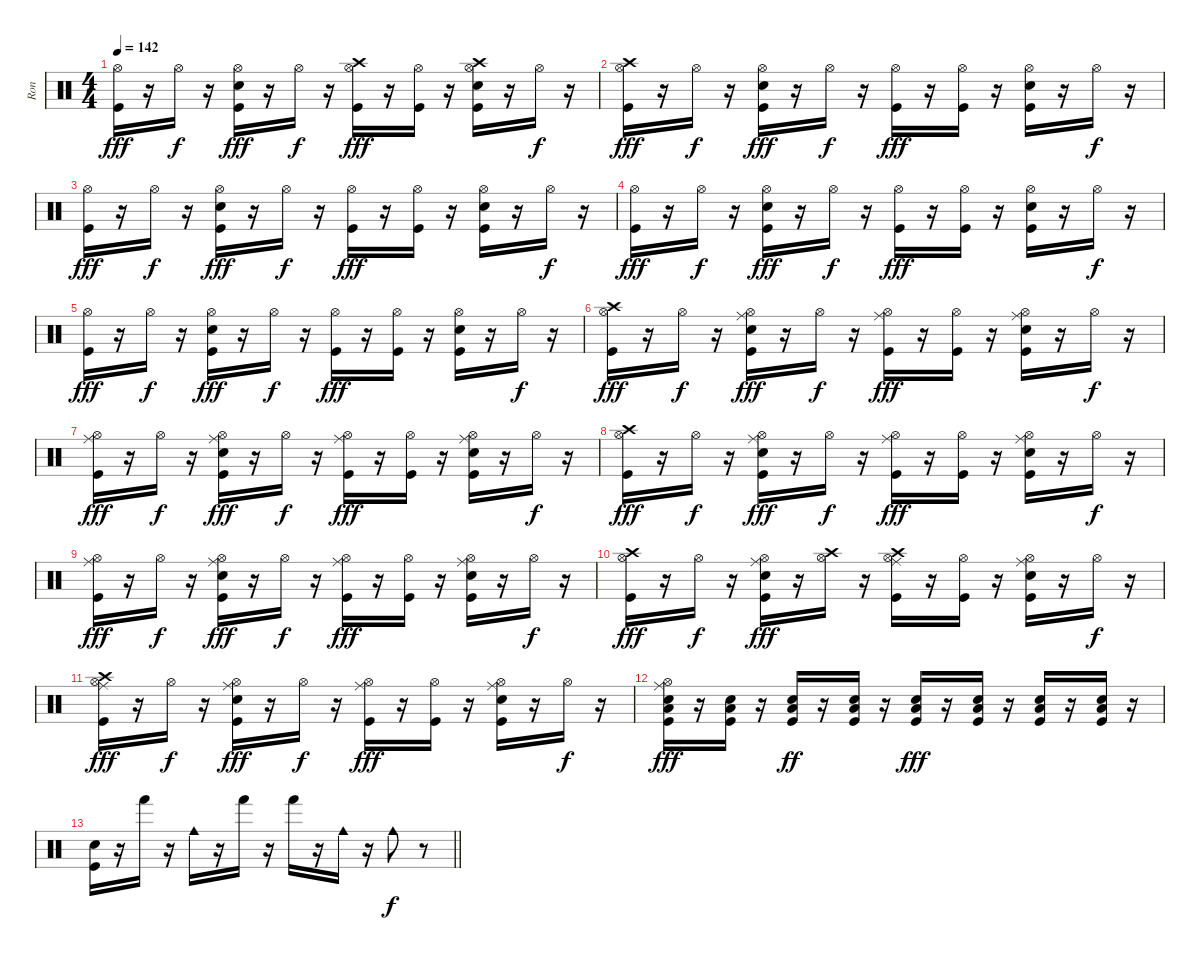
\track ("Ron" "Ron") {instrument percussion}
\staff {score}
\articulation defaults
\ts (4 4)
\tempo 142
\clef neutral
\ks c
("Hi-Hat (open)" "Kick (hit)").16{dy fff} r.16 "Hi-Hat (open)".16{dy f} r.16 ("Snare (hit) 2" "Kick (hit)" "Hi-Hat (open)").16{dy fff} r.16 "Hi-Hat (open)".16{dy f} r.16 ("Kick (hit)" "Hi-Hat (open)" "Crash high (hit)").16{dy fff} r.16 ("Kick (hit)" "Hi-Hat (open)").16 r.16 ("Kick (hit)" "Snare (hit) 2" "Hi-Hat (open)" "Crash high (hit)").16 r.16 "Hi-Hat (open)".16{dy f} r.16 |
("Hi-Hat (open)" "Kick (hit)" "Crash high (hit)").16{dy fff} r.16 "Hi-Hat (open)".16{dy f} r.16 ("Snare (hit) 2" "Kick (hit)" "Hi-Hat (open)").16{dy fff} r.16 "Hi-Hat (open)".16{dy f} r.16 ("Kick (hit)" "Hi-Hat (open)").16{dy fff} r.16 ("Kick (hit)" "Hi-Hat (open)").16 r.16 ("Kick (hit)" "Snare (hit) 2" "Hi-Hat (open)").16 r.16 "Hi-Hat (open)".16{dy f} r.16 |
("Hi-Hat (open)" "Kick (hit)").16{dy fff} r.16 "Hi-Hat (open)".16{dy f} r.16 ("Snare (hit) 2" "Kick (hit)" "Hi-Hat (open)").16{dy fff} r.16 "Hi-Hat (open)".16{dy f} r.16 ("Kick (hit)" "Hi-Hat (open)").16{dy fff} r.16 ("Kick (hit)" "Hi-Hat (open)").16 r.16 ("Kick (hit)" "Snare (hit) 2" "Hi-Hat (open)").16 r.16 "Hi-Hat (open)".16{dy f} r.16 |
("Hi-Hat (open)" "Kick (hit)").16{dy fff} r.16 "Hi-Hat (open)".16{dy f} r.16 ("Snare (hit) 2" "Kick (hit)" "Hi-Hat (open)").16{dy fff} r.16 "Hi-Hat (open)".16{dy f} r.16 ("Kick (hit)" "Hi-Hat (open)").16{dy fff} r.16 ("Kick (hit)" "Hi-Hat (open)").16 r.16 ("Kick (hit)" "Snare (hit) 2" "Hi-Hat (open)").16 r.16 "Hi-Hat (open)".16{dy f} r.16 |
("Hi-Hat (open)" "Kick (hit)").16{dy fff} r.16 "Hi-Hat (open)".16{dy f} r.16 ("Snare (hit) 2" "Kick (hit)" "Hi-Hat (open)").16{dy fff} r.16 "Hi-Hat (open)".16{dy f} r.16 ("Kick (hit)" "Hi-Hat (open)").16{dy fff} r.16 ("Kick (hit)" "Hi-Hat (open)").16 r.16 ("Kick (hit)" "Snare (hit) 2" "Hi-Hat (open)").16 r.16 "Hi-Hat (open)".16{dy f} r.16 |
("Hi-Hat (open)" "Kick (hit)" "Crash high (hit)").16{dy fff} r.16 "Hi-Hat (open)".16{dy f} r.16 ("Snare (hit) 2" "Kick (hit)" "Hi-Hat (open)" "Ride (middle)").16{dy fff} r.16 "Hi-Hat (open)".16{dy f} r.16 ("Kick (hit)" "Hi-Hat (open)" "Ride (middle)").16{dy fff} r.16 ("Kick (hit)" "Hi-Hat (open)").16 r.16 ("Kick (hit)" "Snare (hit) 2" "Hi-Hat (open)" "Ride (middle)").16 r.16 "Hi-Hat (open)".16{dy f} r.16 |
("Hi-Hat (open)" "Kick (hit)" "Ride (middle)").16{dy fff} r.16 "Hi-Hat (open)".16{dy f} r.16 ("Snare (hit) 2" "Kick (hit)" "Hi-Hat (open)" "Ride (middle)").16{dy fff} r.16 "Hi-Hat (open)".16{dy f} r.16 ("Kick (hit)" "Hi-Hat (open)" "Ride (middle)").16{dy fff} r.16 ("Kick (hit)" "Hi-Hat (open)").16 r.16 ("Kick (hit)" "Snare (hit) 2" "Hi-Hat (open)" "Ride (middle)").16 r.16 "Hi-Hat (open)".16{dy f} r.16 |
("Crash high (hit)" "Kick (hit)" "Hi-Hat (open)").16{dy fff} r.16 "Hi-Hat (open)".16{dy f} r.16 ("Snare (hit) 2" "Kick (hit)" "Hi-Hat (open)" "Ride (middle)").16{dy fff} r.16 "Hi-Hat (open)".16{dy f} r.16 ("Kick (hit)" "Hi-Hat (open)" "Ride (middle)").16{dy fff} r.16 ("Kick (hit)" "Hi-Hat (open)").16 r.16 ("Kick (hit)" "Snare (hit) 2" "Hi-Hat (open)" "Ride (middle)").16 r.16 "Hi-Hat (open)".16{dy f} r.16 |
("Hi-Hat (open)" "Kick (hit)" "Ride (middle)").16{dy fff} r.16 "Hi-Hat (open)".16{dy f} r.16 ("Snare (hit) 2" "Kick (hit)" "Hi-Hat (open)" "Ride (middle)").16{dy fff} r.16 "Hi-Hat (open)".16{dy f} r.16 ("Kick (hit)" "Hi-Hat (open)" "Ride (middle)").16{dy fff} r.16 ("Kick (hit)" "Hi-Hat (open)").16 r.16 ("Kick (hit)" "Snare (hit) 2" "Hi-Hat (open)" "Ride (middle)").16 r.16 "Hi-Hat (open)".16{dy f} r.16 |
("Crash high (hit)" "Kick (hit)" "Hi-Hat (open)").16{dy fff} r.16 "Hi-Hat (open)".16{dy f} r.16 ("Snare (hit) 2" "Kick (hit)" "Hi-Hat (open)" "Ride (middle)").16{dy fff} r.16 ("Hi-Hat (open)" "Crash high (hit)").16 r.16 ("Kick (hit)" "Hi-Hat (open)" "Ride (middle)" "Crash high (hit)").16 r.16 ("Kick (hit)" "Hi-Hat (open)").16 r.16 ("Kick (hit)" "Snare (hit) 2" "Hi-Hat (open)" "Ride (middle)").16 r.16 "Hi-Hat (open)".16{dy f} r.16 |
("Hi-Hat (open)" "Kick (hit)" "Ride (middle)" "Crash high (hit)").16{dy fff} r.16 "Hi-Hat (open)".16{dy f} r.16 ("Snare (hit) 2" "Kick (hit)" "Hi-Hat (open)" "Ride (middle)").16{dy fff} r.16 "Hi-Hat (open)".16{dy f} r.16 ("Kick (hit)" "Hi-Hat (open)" "Ride (middle)").16{dy fff} r.16 ("Kick (hit)" "Hi-Hat (open)").16 r.16 ("Kick (hit)" "Snare (hit) 2" "Hi-Hat (open)" "Ride (middle)").16 r.16 "Hi-Hat (open)".16{dy f} r.16 |
("Ride (middle)" "Snare (hit) 2" "Kick (hit)" "Hi-Hat (open)" "Low Floor Tom (hit)").16{dy fff} r.16 ("Kick (hit)" "Snare (hit) 2" "Low Floor Tom (hit)").16 r.16 ("Kick (hit)" "Snare (hit) 2" "Low Floor Tom (hit)").16{dy ff} r.16 ("Kick (hit)" "Snare (hit) 2" "Low Floor Tom (hit)").16 r.16 ("Kick (hit)" "Snare (hit) 2" "Low Floor Tom (hit)").16{dy fff} r.16 ("Kick (hit)" "Snare (hit) 2" "Low Floor Tom (hit)").16 r.16 ("Kick (hit)" "Snare (hit) 2" "Low Floor Tom (hit)").16 r.16 ("Kick (hit)" "Snare (hit) 2" "Low Floor Tom (hit)").16 r.16 |
\barLineRight lightlight
("Kick (hit)" "Snare (hit) 2").16 r.16 "Hand (hit)".16 r.16 "Cowbell medium (hit)".16 r.16 "Hand (hit)".16 r.16 "Hand (hit)".16 r.16 "Cowbell medium (hit)".16 r.16 "Cowbell medium (hit)".8{dy f} r.8
